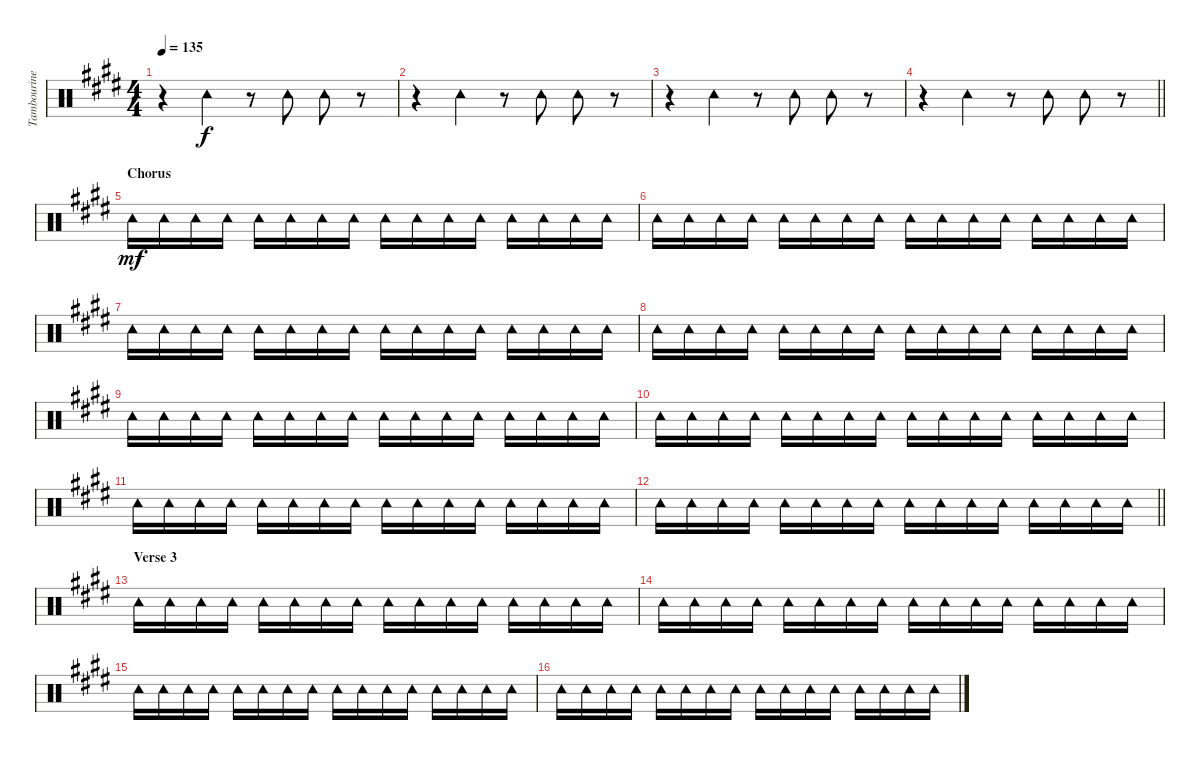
\track ("Tambourine" "Tambourine") {instrument percussion}
\staff {score}
\articulation defaults
\ts (4 4)
\tempo 135
\clef neutral
\ks e
r.4{dy f} "Tambourine (hit)".4 r.8 "Tambourine (hit)".8 "Tambourine (hit)".8 r.8 |
r.4 "Tambourine (hit)".4 r.8 "Tambourine (hit)".8 "Tambourine (hit)".8 r.8 |
r.4 "Tambourine (hit)".4 r.8 "Tambourine (hit)".8 "Tambourine (hit)".8 r.8 |
\barLineRight lightlight
r.4 "Tambourine (hit)".4 r.8 "Tambourine (hit)".8 "Tambourine (hit)".8 r.8 |
\section ("" "Chorus")
"Tambourine (hit)".16{dy mf} "Tambourine (hit)".16 "Tambourine (hit)".16 "Tambourine (hit)".16 "Tambourine (hit)".16 "Tambourine (hit)".16 "Tambourine (hit)".16 "Tambourine (hit)".16 "Tambourine (hit)".16 "Tambourine (hit)".16 "Tambourine (hit)".16 "Tambourine (hit)".16 "Tambourine (hit)".16 "Tambourine (hit)".16 "Tambourine (hit)".16 "Tambourine (hit)".16 |
"Tambourine (hit)".16 "Tambourine (hit)".16 "Tambourine (hit)".16 "Tambourine (hit)".16 "Tambourine (hit)".16 "Tambourine (hit)".16 "Tambourine (hit)".16 "Tambourine (hit)".16 "Tambourine (hit)".16 "Tambourine (hit)".16 "Tambourine (hit)".16 "Tambourine (hit)".16 "Tambourine (hit)".16 "Tambourine (hit)".16 "Tambourine (hit)".16 "Tambourine (hit)".16 |
"Tambourine (hit)".16 "Tambourine (hit)".16 "Tambourine (hit)".16 "Tambourine (hit)".16 "Tambourine (hit)".16 "Tambourine (hit)".16 "Tambourine (hit)".16 "Tambourine (hit)".16 "Tambourine (hit)".16 "Tambourine (hit)".16 "Tambourine (hit)".16 "Tambourine (hit)".16 "Tambourine (hit)".16 "Tambourine (hit)".16 "Tambourine (hit)".16 "Tambourine (hit)".16 |
"Tambourine (hit)".16 "Tambourine (hit)".16 "Tambourine (hit)".16 "Tambourine (hit)".16 "Tambourine (hit)".16 "Tambourine (hit)".16 "Tambourine (hit)".16 "Tambourine (hit)".16 "Tambourine (hit)".16 "Tambourine (hit)".16 "Tambourine (hit)".16 "Tambourine (hit)".16 "Tambourine (hit)".16 "Tambourine (hit)".16 "Tambourine (hit)".16 "Tambourine (hit)".16 |
"Tambourine (hit)".16 "Tambourine (hit)".16 "Tambourine (hit)".16 "Tambourine (hit)".16 "Tambourine (hit)".16 "Tambourine (hit)".16 "Tambourine (hit)".16 "Tambourine (hit)".16 "Tambourine (hit)".16 "Tambourine (hit)".16 "Tambourine (hit)".16 "Tambourine (hit)".16 "Tambourine (hit)".16 "Tambourine (hit)".16 "Tambourine (hit)".16 "Tambourine (hit)".16 |
"Tambourine (hit)".16 "Tambourine (hit)".16 "Tambourine (hit)".16 "Tambourine (hit)".16 "Tambourine (hit)".16 "Tambourine (hit)".16 "Tambourine (hit)".16 "Tambourine (hit)".16 "Tambourine (hit)".16 "Tambourine (hit)".16 "Tambourine (hit)".16 "Tambourine (hit)".16 "Tambourine (hit)".16 "Tambourine (hit)".16 "Tambourine (hit)".16 "Tambourine (hit)".16 |
"Tambourine (hit)".16 "Tambourine (hit)".16 "Tambourine (hit)".16 "Tambourine (hit)".16 "Tambourine (hit)".16 "Tambourine (hit)".16 "Tambourine (hit)".16 "Tambourine (hit)".16 "Tambourine (hit)".16 "Tambourine (hit)".16 "Tambourine (hit)".16 "Tambourine (hit)".16 "Tambourine (hit)".16 "Tambourine (hit)".16 "Tambourine (hit)".16 "Tambourine (hit)".16 |
\barLineRight lightlight "Tambourine (hit)".16 "Tambourine (hit)".16 "Tambourine (hit)".16 "Tambourine (hit)".16 "Tambourine (hit)".16 "Tambourine (hit)".16 "Tambourine (hit)".16 "Tambourine (hit)".16 "Tambourine (hit)".16 "Tambourine (hit)".16 "Tambourine (hit)".16 "Tambourine (hit)".16 "Tambourine (hit)".16 "Tambourine (hit)".16 "Tambourine (hit)".16 "Tambourine (hit)".16
|
\section ("" "Verse 3")
"Tambourine (hit)".16 "Tambourine (hit)".16 "Tambourine (hit)".16 "Tambourine (hit)".16 "Tambourine (hit)".16 "Tambourine (hit)".16 "Tambourine (hit)".16 "Tambourine (hit)".16 "Tambourine (hit)".16 "Tambourine (hit)".16 "Tambourine (hit)".16 "Tambourine (hit)".16 "Tambourine (hit)".16 "Tambourine (hit)".16 "Tambourine (hit)".16 "Tambourine (hit)".16 |
"Tambourine (hit)".16 "Tambourine (hit)".16 "Tambourine (hit)".16 "Tambourine (hit)".16 "Tambourine (hit)".16 "Tambourine (hit)".16 "Tambourine (hit)".16 "Tambourine (hit)".16 "Tambourine (hit)".16 "Tambourine (hit)".16 "Tambourine (hit)".16 "Tambourine (hit)".16 "Tambourine (hit)".16 "Tambourine (hit)".16 "Tambourine (hit)".16 "Tambourine (hit)".16 |
"Tambourine (hit)".16 "Tambourine (hit)".16 "Tambourine (hit)".16 "Tambourine (hit)".16 "Tambourine (hit)".16 "Tambourine (hit)".16 "Tambourine (hit)".16 "Tambourine (hit)".16 "Tambourine (hit)".16 "Tambourine (hit)".16 "Tambourine (hit)".16 "Tambourine (hit)".16 "Tambourine (hit)".16 "Tambourine (hit)".16 "Tambourine (hit)".16 "Tambourine (hit)".16 |
"Tambourine (hit)".16 "Tambourine (hit)".16 "Tambourine (hit)".16 "Tambourine (hit)".16 "Tambourine (hit)".16 "Tambourine (hit)".16 "Tambourine (hit)".16 "Tambourine (hit)".16 "Tambourine (hit)".16 "Tambourine (hit)".16 "Tambourine (hit)".16 "Tambourine (hit)".16 "Tambourine (hit)".16 "Tambourine (hit)".16 "Tambourine (hit)".16 "Tambourine (hit)".16
